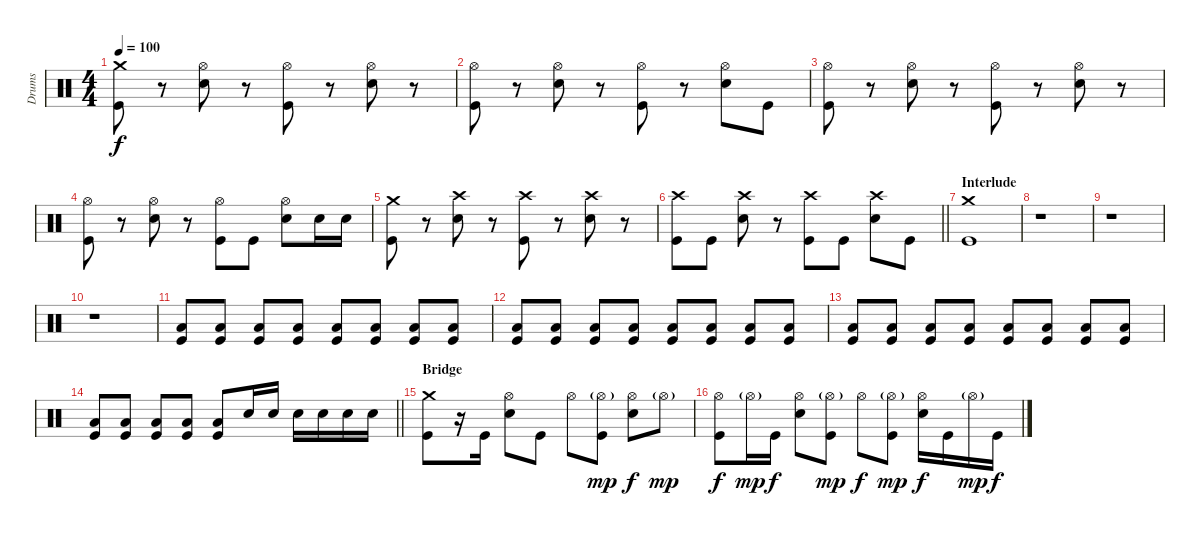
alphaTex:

\track ("Drums" "Drums") {instrument percussion}
\staff {score}
\articulation defaults
\ts (4 4)
\tempo 100
\clef neutral
\ks c
("Crash medium (hit)" "Kick (hit)").8{dy f} r.8 ("Hi-Hat (open)" "Electric Snare (hit)").8 r.8 ("Hi-Hat (open)" "Kick (hit)").8 r.8 ("Hi-Hat (open)" "Electric Snare (hit)").8 r.8 |
("Hi-Hat (open)" "Kick (hit)").8 r.8 ("Hi-Hat (open)" "Electric Snare (hit)").8 r.8 ("Hi-Hat (open)" "Kick (hit)").8 r.8 ("Hi-Hat (open)" "Electric Snare (hit)").8 "Kick (hit)".8 |
("Hi-Hat (open)" "Kick (hit)").8 r.8 ("Hi-Hat (open)" "Electric Snare (hit)").8 r.8 ("Hi-Hat (open)" "Kick (hit)").8 r.8 ("Hi-Hat (open)" "Electric Snare (hit)").8 r.8 |
("Hi-Hat (open)" "Kick (hit)").8 r.8 ("Hi-Hat (open)" "Electric Snare (hit)").8 r.8 ("Hi-Hat (open)" "Kick (hit)").8 "Kick (hit)".8 ("Hi-Hat (open)" "Electric Snare (hit)").8 "Electric Snare (hit)".16 "Electric Snare (hit)".16 |
("Crash medium (hit)" "Kick (hit)").8 r.8 ("Crash high (hit)" "Electric Snare (hit)").8 r.8 ("Crash high (hit)" "Kick (hit)").8 r.8 ("Crash high (hit)" "Electric Snare (hit)").8 r.8 |
\barLineRight lightlight
("Crash high (hit)" "Kick (hit)").8 "Kick (hit)".8 ("Crash high (hit)" "Electric Snare (hit)").8 r.8 ("Crash high (hit)" "Kick (hit)").8 "Kick (hit)".8 ("Crash high (hit)" "Electric Snare (hit)").8 "Kick (hit)".8 |
\section ("" "Interlude")
("Crash medium (hit)" "Kick (hit)").1 |
r.1 |
r.1 |
r.1{volume 6} |
("Low Floor Tom (hit)" "Kick (hit)").8{volume 14} ("Low Floor Tom (hit)" "Kick (hit)").8 ("Low Floor Tom (hit)" "Kick (hit)").8 ("Low Floor Tom (hit)" "Kick (hit)").8 ("Low Floor Tom (hit)" "Kick (hit)").8 ("Low Floor Tom (hit)" "Kick (hit)").8 ("Low Floor Tom (hit)" "Kick (hit)").8 ("Low Floor Tom (hit)" "Kick (hit)").8 |
("Low Floor Tom (hit)" "Kick (hit)").8 ("Low Floor Tom (hit)" "Kick (hit)").8 ("Low Floor Tom (hit)" "Kick (hit)").8 ("Low Floor Tom (hit)" "Kick (hit)").8 ("Low Floor Tom (hit)" "Kick (hit)").8 ("Low Floor Tom (hit)" "Kick (hit)").8 ("Low Floor Tom (hit)" "Kick (hit)").8 ("Low Floor Tom (hit)" "Kick (hit)").8 |
("Low Floor Tom (hit)" "Kick (hit)").8 ("Low Floor Tom (hit)" "Kick (hit)").8 ("Low Floor Tom (hit)" "Kick (hit)").8 ("Low Floor Tom (hit)" "Kick (hit)").8 ("Low Floor Tom (hit)" "Kick (hit)").8 ("Low Floor Tom (hit)" "Kick (hit)").8 ("Low Floor Tom (hit)" "Kick (hit)").8 ("Low Floor Tom (hit)" "Kick (hit)").8 |
\barLineRight lightlight
("Low Floor Tom (hit)" "Kick (hit)").8 ("Low Floor Tom (hit)" "Kick (hit)").8 ("Low Floor Tom (hit)" "Kick (hit)").8 ("Low Floor Tom (hit)" "Kick (hit)").8 ("Low Floor Tom (hit)" "Kick (hit)").8 "Electric Snare (hit)".16 "Electric Snare (hit)".16 "Electric Snare (hit)".16 "Electric Snare (hit)".16 "Electric Snare (hit)".16 "Electric Snare (hit)".16 |
\section ("" "Bridge")
("Crash medium (hit)" "Kick (hit)").8 r.16 "Kick (hit)".16 ("Hi-Hat (open)" "Electric Snare (hit)").8 "Kick (hit)".8 "Hi-Hat (open)".8 ("Hi-Hat (open)"{g} "Kick (hit)").8{dy mp} ("Hi-Hat (open)" "Electric Snare (hit)").8{dy f} "Hi-Hat (open)"{g}.8{dy mp} |
("Hi-Hat (open)" "Kick (hit)").8{dy f} "Hi-Hat (open)"{g}.16{dy mp} "Kick (hit)".16{dy f} ("Hi-Hat (open)" "Electric Snare (hit)").8 ("Hi-Hat (open)"{g} "Kick (hit)").8{dy mp} "Hi-Hat (open)".8{dy f} ("Hi-Hat (open)"{g} "Kick (hit)").8{dy mp} ("Hi-Hat (open)" "Electric Snare (hit)").16{dy f} "Kick (hit)".16 "Hi-Hat (open)"{g}.16{dy mp} "Kick (hit)".16{dy f}
